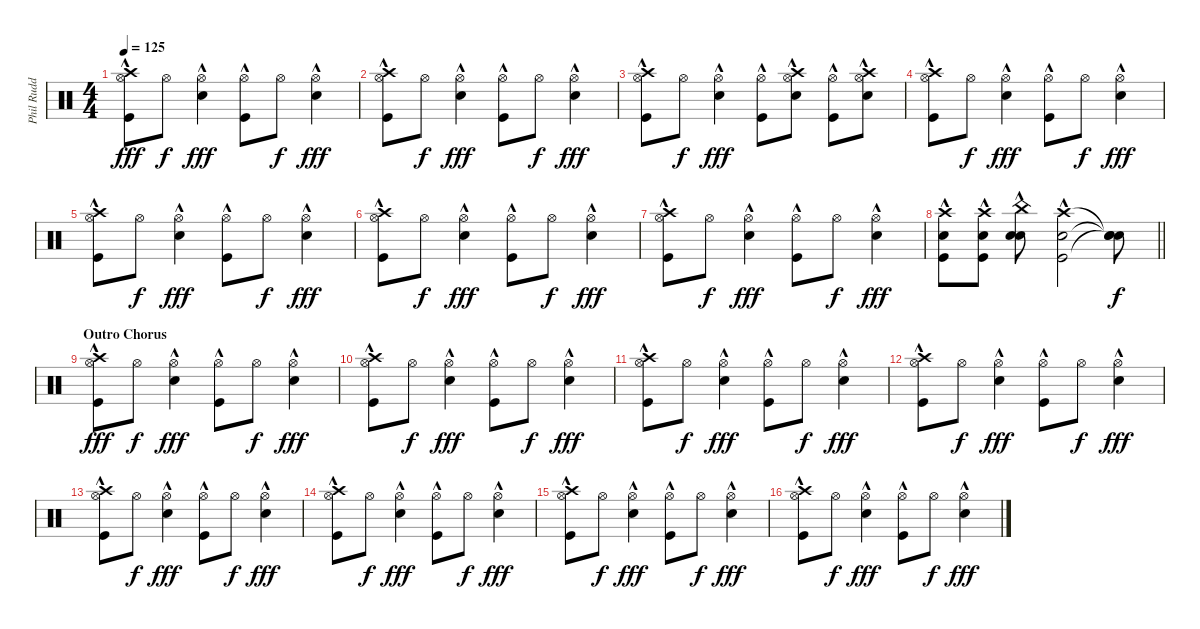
\track ("Phil Rudd" "Phil Rudd") {instrument percussion}
\staff {score}
\articulation defaults
\ts (4 4)
\tempo 125
\clef neutral
\ks c
("Hi-Hat (open)" "Crash high (hit)" "Kick (hit)"{hac}).8{dy fff} "Hi-Hat (open)".8{dy f} ("Snare (hit) 2"{hac} "Hi-Hat (open)").4{dy fff} ("Hi-Hat (open)" "Kick (hit)"{hac}).8 "Hi-Hat (open)".8{dy f} ("Snare (hit) 2"{hac} "Hi-Hat (open)").4{dy fff} |
("Hi-Hat (open)" "Crash high (hit)" "Kick (hit)"{hac}).8 "Hi-Hat (open)".8{dy f} ("Snare (hit) 2"{hac} "Hi-Hat (open)").4{dy fff} ("Hi-Hat (open)" "Kick (hit)"{hac}).8 "Hi-Hat (open)".8{dy f} ("Snare (hit) 2"{hac} "Hi-Hat (open)").4{dy fff} |
("Hi-Hat (open)" "Crash high (hit)" "Kick (hit)"{hac}).8 "Hi-Hat (open)".8{dy f} ("Snare (hit) 2"{hac} "Hi-Hat (open)").4{dy fff} ("Hi-Hat (open)"{hac} "Kick (hit)").8 ("Snare (hit) 2"{hac} "Hi-Hat (open)" "Crash high (hit)").8 ("Hi-Hat (open)"{hac} "Kick (hit)").8 ("Snare (hit) 2"{hac} "Hi-Hat (open)" "Crash high (hit)").8 |
("Hi-Hat (open)" "Crash high (hit)" "Kick (hit)"{hac}).8 "Hi-Hat (open)".8{dy f} ("Snare (hit) 2"{hac} "Hi-Hat (open)").4{dy fff} ("Hi-Hat (open)" "Kick (hit)"{hac}).8 "Hi-Hat (open)".8{dy f} ("Snare (hit) 2"{hac} "Hi-Hat (open)").4{dy fff} |
("Hi-Hat (open)" "Crash high (hit)" "Kick (hit)"{hac}).8 "Hi-Hat (open)".8{dy f} ("Snare (hit) 2"{hac} "Hi-Hat (open)").4{dy fff} ("Hi-Hat (open)" "Kick (hit)"{hac}).8 "Hi-Hat (open)".8{dy f} ("Snare (hit) 2"{hac} "Hi-Hat (open)").4{dy fff} |
("Hi-Hat (open)" "Crash high (hit)" "Kick (hit)"{hac}).8 "Hi-Hat (open)".8{dy f} ("Snare (hit) 2"{hac} "Hi-Hat (open)").4{dy fff} ("Hi-Hat (open)" "Kick (hit)"{hac}).8 "Hi-Hat (open)".8{dy f} ("Snare (hit) 2"{hac} "Hi-Hat (open)").4{dy fff} |
("Hi-Hat (open)" "Crash high (hit)" "Kick (hit)"{hac}).8 "Hi-Hat (open)".8{dy f} ("Snare (hit) 2"{hac} "Hi-Hat (open)").4{dy fff} ("Hi-Hat (open)" "Kick (hit)"{hac}).8 "Hi-Hat (open)".8{dy f} ("Snare (hit) 2"{hac} "Hi-Hat (open)").4{dy fff} |
\barLineRight lightlight
("Crash high (hit)"{hac} "Snare (hit) 2"{hac} "Kick (hit)"{hac}).8 ("Crash high (hit)"{hac} "Snare (hit) 2"{hac} "Kick (hit)").8 ("China (hit)"{hac} "Snare (hit) 2"{hac} "Snare (hit)").8 ("Crash high (hit)"{hac} "Snare (hit) 2"{hac} "Kick (hit)"{hac}).2 ("Snare (hit)"{t} "Snare (hit)"{t} "Snare (hit)"{t}).8{dy f} |
\section ("" "Outro Chorus")
("Hi-Hat (open)" "Crash high (hit)" "Kick (hit)"{hac}).8{dy fff} "Hi-Hat (open)".8{dy f} ("Snare (hit) 2"{hac} "Hi-Hat (open)").4{dy fff} ("Hi-Hat (open)" "Kick (hit)"{hac}).8 "Hi-Hat (open)".8{dy f} ("Snare (hit) 2"{hac} "Hi-Hat (open)").4{dy fff} |
("Hi-Hat (open)" "Crash high (hit)" "Kick (hit)"{hac}).8 "Hi-Hat (open)".8{dy f} ("Snare (hit) 2"{hac} "Hi-Hat (open)").4{dy fff} ("Hi-Hat (open)" "Kick (hit)"{hac}).8 "Hi-Hat (open)".8{dy f} ("Snare (hit) 2"{hac} "Hi-Hat (open)").4{dy fff} |
("Hi-Hat (open)" "Crash high (hit)" "Kick (hit)"{hac}).8 "Hi-Hat (open)".8{dy f} ("Snare (hit) 2"{hac} "Hi-Hat (open)").4{dy fff} ("Hi-Hat (open)" "Kick (hit)"{hac}).8 "Hi-Hat (open)".8{dy f} ("Snare (hit) 2"{hac} "Hi-Hat (open)").4{dy fff} |
("Hi-Hat (open)" "Crash high (hit)" "Kick (hit)"{hac}).8 "Hi-Hat (open)".8{dy f} ("Snare (hit) 2"{hac} "Hi-Hat (open)").4{dy fff} ("Hi-Hat (open)" "Kick (hit)"{hac}).8 "Hi-Hat (open)".8{dy f} ("Snare (hit) 2"{hac} "Hi-Hat (open)").4{dy fff} |
("Hi-Hat (open)" "Crash high (hit)" "Kick (hit)"{hac}).8 "Hi-Hat (open)".8{dy f} ("Snare (hit) 2"{hac} "Hi-Hat (open)").4{dy fff} ("Hi-Hat (open)" "Kick (hit)"{hac}).8 "Hi-Hat (open)".8{dy f} ("Snare (hit) 2"{hac} "Hi-Hat (open)").4{dy fff} |
("Hi-Hat (open)" "Crash high (hit)" "Kick (hit)"{hac}).8 "Hi-Hat (open)".8{dy f} ("Snare (hit) 2"{hac} "Hi-Hat (open)").4{dy fff} ("Hi-Hat (open)" "Kick (hit)"{hac}).8 "Hi-Hat (open)".8{dy f} ("Snare (hit) 2"{hac} "Hi-Hat (open)").4{dy fff} |
("Hi-Hat (open)" "Crash high (hit)" "Kick (hit)"{hac}).8 "Hi-Hat (open)".8{dy f} ("Snare (hit) 2"{hac} "Hi-Hat (open)").4{dy fff} ("Hi-Hat (open)" "Kick (hit)"{hac}).8 "Hi-Hat (open)".8{dy f} ("Snare (hit) 2"{hac} "Hi-Hat (open)").4{dy fff} |
("Hi-Hat (open)" "Crash high (hit)" "Kick (hit)"{hac}).8 "Hi-Hat (open)".8{dy f} ("Snare (hit) 2"{hac} "Hi-Hat (open)").4{dy fff} ("Hi-Hat (open)" "Kick (hit)"{hac}).8 "Hi-Hat (open)".8{dy f} ("Snare (hit) 2"{hac} "Hi-Hat (open)").4{dy fff}
